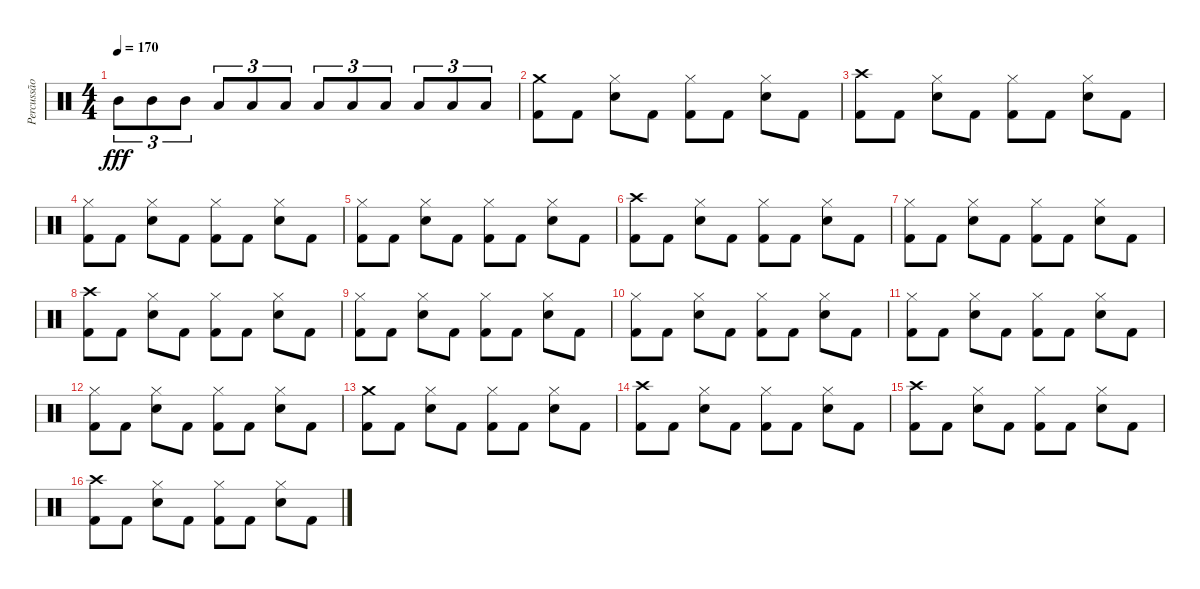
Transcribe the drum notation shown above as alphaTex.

\track ("Percussão" "Percussão") {instrument percussion}
\staff {score}
\articulation defaults
\ts (4 4)
\tempo 170
\clef neutral
\ks c "Mid Tom (hit)".8{tu (3 2) dy fff} "Mid Tom (hit)".8{tu (3 2)} "Mid Tom (hit)".8{tu (3 2)} "Low Tom (hit)".8{tu (3 2)} "Low Tom (hit)".8{tu (3 2)} "Low Tom (hit)".8{tu (3 2)} "Low Floor Tom (hit)".8{tu (3 2)} "Low Floor Tom (hit)".8{tu (3 2)} "Low Floor Tom (hit)".8{tu (3 2)} "Low Floor Tom (hit)".8{tu (3 2)} "Low Floor Tom (hit)".8{tu (3 2)} "Low Floor Tom (hit)".8{tu (3 2)}
|
("Kick (hit) 2" "Crash medium (hit)").8 "Kick (hit) 2".8 ("Snare (hit) 2" "Hi-Hat (closed)").8 "Kick (hit) 2".8 ("Kick (hit) 2" "Hi-Hat (closed)").8 "Kick (hit) 2".8 ("Snare (hit) 2" "Hi-Hat (closed)").8 "Kick (hit) 2".8 |
("Kick (hit) 2" "Crash high (hit)").8 "Kick (hit) 2".8 ("Snare (hit) 2" "Hi-Hat (closed)").8 "Kick (hit) 2".8 ("Kick (hit) 2" "Hi-Hat (closed)").8 "Kick (hit) 2".8 ("Snare (hit) 2" "Hi-Hat (closed)").8 "Kick (hit) 2".8 |
("Kick (hit) 2" "Hi-Hat (closed)").8 "Kick (hit) 2".8 ("Snare (hit) 2" "Hi-Hat (closed)").8 "Kick (hit) 2".8 ("Kick (hit) 2" "Hi-Hat (closed)").8 "Kick (hit) 2".8 ("Snare (hit) 2" "Hi-Hat (closed)").8 "Kick (hit) 2".8 |
("Kick (hit) 2" "Hi-Hat (closed)").8 "Kick (hit) 2".8 ("Snare (hit) 2" "Hi-Hat (closed)").8 "Kick (hit) 2".8 ("Kick (hit) 2" "Hi-Hat (closed)").8 "Kick (hit) 2".8 ("Snare (hit) 2" "Hi-Hat (closed)").8 "Kick (hit) 2".8 |
("Kick (hit) 2" "Crash high (hit)").8 "Kick (hit) 2".8 ("Snare (hit) 2" "Hi-Hat (closed)").8 "Kick (hit) 2".8 ("Kick (hit) 2" "Hi-Hat (closed)").8 "Kick (hit) 2".8 ("Snare (hit) 2" "Hi-Hat (closed)").8 "Kick (hit) 2".8 |
("Kick (hit) 2" "Hi-Hat (closed)").8 "Kick (hit) 2".8 ("Snare (hit) 2" "Hi-Hat (closed)").8 "Kick (hit) 2".8 ("Kick (hit) 2" "Hi-Hat (closed)").8 "Kick (hit) 2".8 ("Snare (hit) 2" "Hi-Hat (closed)").8 "Kick (hit) 2".8 |
("Kick (hit) 2" "Crash high (hit)").8 "Kick (hit) 2".8 ("Snare (hit) 2" "Hi-Hat (closed)").8 "Kick (hit) 2".8 ("Kick (hit) 2" "Hi-Hat (closed)").8 "Kick (hit) 2".8 ("Snare (hit) 2" "Hi-Hat (closed)").8 "Kick (hit) 2".8 |
("Kick (hit) 2" "Hi-Hat (closed)").8 "Kick (hit) 2".8 ("Snare (hit) 2" "Hi-Hat (closed)").8 "Kick (hit) 2".8 ("Kick (hit) 2" "Hi-Hat (closed)").8 "Kick (hit) 2".8 ("Snare (hit) 2" "Hi-Hat (closed)").8 "Kick (hit) 2".8 |
("Kick (hit) 2" "Hi-Hat (closed)").8 "Kick (hit) 2".8 ("Snare (hit) 2" "Hi-Hat (closed)").8 "Kick (hit) 2".8 ("Kick (hit) 2" "Hi-Hat (closed)").8 "Kick (hit) 2".8 ("Snare (hit) 2" "Hi-Hat (closed)").8 "Kick (hit) 2".8 |
("Kick (hit) 2" "Hi-Hat (closed)").8 "Kick (hit) 2".8 ("Snare (hit) 2" "Hi-Hat (closed)").8 "Kick (hit) 2".8 ("Kick (hit) 2" "Hi-Hat (closed)").8 "Kick (hit) 2".8 ("Snare (hit) 2" "Hi-Hat (closed)").8 "Kick (hit) 2".8 |
("Kick (hit) 2" "Hi-Hat (closed)").8 "Kick (hit) 2".8 ("Snare (hit) 2" "Hi-Hat (closed)").8 "Kick (hit) 2".8 ("Kick (hit) 2" "Hi-Hat (closed)").8 "Kick (hit) 2".8 ("Snare (hit) 2" "Hi-Hat (closed)").8 "Kick (hit) 2".8 |
("Kick (hit) 2" "Crash medium (hit)").8 "Kick (hit) 2".8 ("Snare (hit) 2" "Hi-Hat (closed)").8 "Kick (hit) 2".8 ("Kick (hit) 2" "Hi-Hat (closed)").8 "Kick (hit) 2".8 ("Snare (hit) 2" "Hi-Hat (closed)").8 "Kick (hit) 2".8 |
("Kick (hit) 2" "Crash high (hit)").8 "Kick (hit) 2".8 ("Snare (hit) 2" "Hi-Hat (closed)").8 "Kick (hit) 2".8 ("Kick (hit) 2" "Hi-Hat (closed)").8 "Kick (hit) 2".8 ("Snare (hit) 2" "Hi-Hat (closed)").8 "Kick (hit) 2".8 |
("Kick (hit) 2" "Crash high (hit)").8 "Kick (hit) 2".8 ("Snare (hit) 2" "Hi-Hat (closed)").8 "Kick (hit) 2".8 ("Kick (hit) 2" "Hi-Hat (closed)").8 "Kick (hit) 2".8 ("Snare (hit) 2" "Hi-Hat (closed)").8 "Kick (hit) 2".8 |
("Kick (hit) 2" "Crash high (hit)").8 "Kick (hit) 2".8 ("Snare (hit) 2" "Hi-Hat (closed)").8 "Kick (hit) 2".8 ("Kick (hit) 2" "Hi-Hat (closed)").8 "Kick (hit) 2".8 ("Snare (hit) 2" "Hi-Hat (closed)").8 "Kick (hit) 2".8
